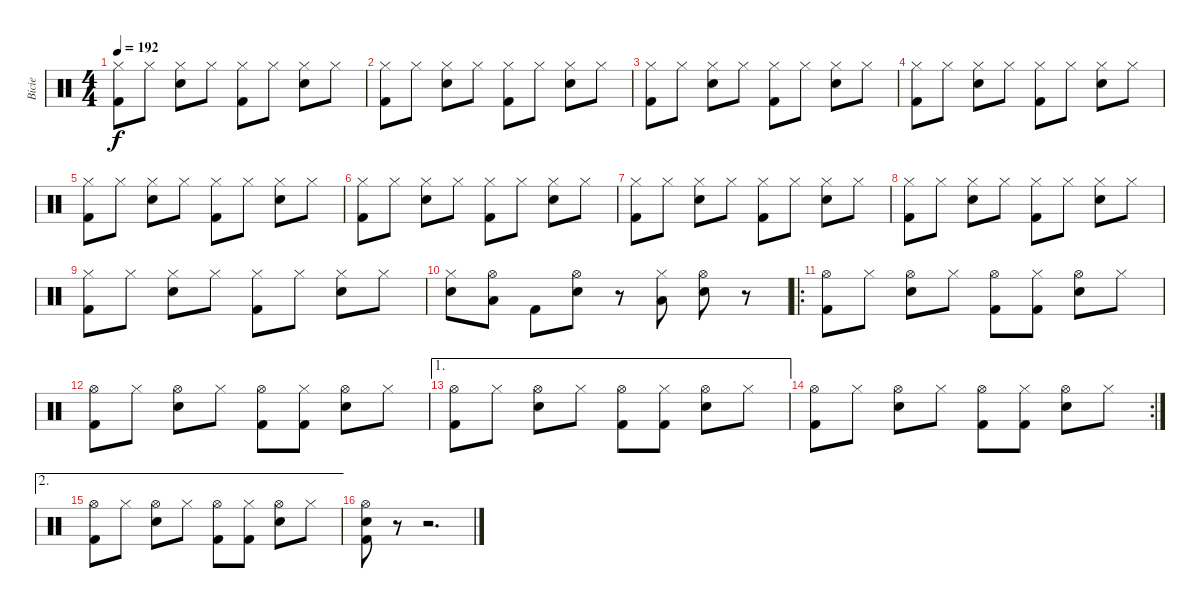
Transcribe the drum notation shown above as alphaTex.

\track ("Bicie" "Bicie") {instrument percussion}
\staff {score}
\articulation defaults
\ts (4 4)
\tempo 192
\clef neutral
\ks c
("Hi-Hat (closed)" "Kick (hit) 2").8{dy f} "Hi-Hat (closed)".8 ("Hi-Hat (closed)" "Electric Snare (hit)").8 "Hi-Hat (closed)".8 ("Hi-Hat (closed)" "Kick (hit) 2").8 "Hi-Hat (closed)".8 ("Hi-Hat (closed)" "Electric Snare (hit)").8 "Hi-Hat (closed)".8 |
("Hi-Hat (closed)" "Kick (hit) 2").8 "Hi-Hat (closed)".8 ("Hi-Hat (closed)" "Electric Snare (hit)").8 "Hi-Hat (closed)".8 ("Hi-Hat (closed)" "Kick (hit) 2").8 "Hi-Hat (closed)".8 ("Hi-Hat (closed)" "Electric Snare (hit)").8 "Hi-Hat (closed)".8 |
("Hi-Hat (closed)" "Kick (hit) 2").8 "Hi-Hat (closed)".8 ("Hi-Hat (closed)" "Electric Snare (hit)").8 "Hi-Hat (closed)".8 ("Hi-Hat (closed)" "Kick (hit) 2").8 "Hi-Hat (closed)".8 ("Hi-Hat (closed)" "Electric Snare (hit)").8 "Hi-Hat (closed)".8 |
("Hi-Hat (closed)" "Kick (hit) 2").8 "Hi-Hat (closed)".8 ("Hi-Hat (closed)" "Electric Snare (hit)").8 "Hi-Hat (closed)".8 ("Hi-Hat (closed)" "Kick (hit) 2").8 "Hi-Hat (closed)".8 ("Hi-Hat (closed)" "Electric Snare (hit)").8 "Hi-Hat (closed)".8 |
("Hi-Hat (closed)" "Kick (hit) 2").8 "Hi-Hat (closed)".8 ("Hi-Hat (closed)" "Electric Snare (hit)").8 "Hi-Hat (closed)".8 ("Hi-Hat (closed)" "Kick (hit) 2").8 "Hi-Hat (closed)".8 ("Hi-Hat (closed)" "Electric Snare (hit)").8 "Hi-Hat (closed)".8 |
("Hi-Hat (closed)" "Kick (hit) 2").8 "Hi-Hat (closed)".8 ("Hi-Hat (closed)" "Electric Snare (hit)").8 "Hi-Hat (closed)".8 ("Hi-Hat (closed)" "Kick (hit) 2").8 "Hi-Hat (closed)".8 ("Hi-Hat (closed)" "Electric Snare (hit)").8 "Hi-Hat (closed)".8 |
("Hi-Hat (closed)" "Kick (hit) 2").8 "Hi-Hat (closed)".8 ("Hi-Hat (closed)" "Electric Snare (hit)").8 "Hi-Hat (closed)".8 ("Hi-Hat (closed)" "Kick (hit) 2").8 "Hi-Hat (closed)".8 ("Hi-Hat (closed)" "Electric Snare (hit)").8 "Hi-Hat (closed)".8 |
("Hi-Hat (closed)" "Kick (hit) 2").8 "Hi-Hat (closed)".8 ("Hi-Hat (closed)" "Electric Snare (hit)").8 "Hi-Hat (closed)".8 ("Hi-Hat (closed)" "Kick (hit) 2").8 "Hi-Hat (closed)".8 ("Hi-Hat (closed)" "Electric Snare (hit)").8 "Hi-Hat (closed)".8 |
("Hi-Hat (closed)" "Kick (hit) 2").8 "Hi-Hat (closed)".8 ("Hi-Hat (closed)" "Electric Snare (hit)").8 "Hi-Hat (closed)".8 ("Hi-Hat (closed)" "Kick (hit) 2").8 "Hi-Hat (closed)".8 ("Hi-Hat (closed)" "Electric Snare (hit)").8 "Hi-Hat (closed)".8 |
("Hi-Hat (closed)" "Electric Snare (hit)").8 ("Hi-Hat (open)" "Low Tom (hit)").8 "Kick (hit) 2".8 ("Hi-Hat (open)" "Electric Snare (hit)").8 r.8 ("Hi-Hat (closed)" "Low Tom (hit)").8 ("Hi-Hat (open)" "Electric Snare (hit)").8 r.8 |
\ro
("Hi-Hat (open)" "Kick (hit) 2").8 "Hi-Hat (closed)".8 ("Hi-Hat (open)" "Electric Snare (hit)").8 "Hi-Hat (closed)".8 ("Hi-Hat (open)" "Kick (hit) 2").8 ("Hi-Hat (closed)" "Kick (hit) 2").8 ("Hi-Hat (open)" "Electric Snare (hit)").8 "Hi-Hat (closed)".8 |
("Hi-Hat (open)" "Kick (hit) 2").8 "Hi-Hat (closed)".8 ("Hi-Hat (open)" "Electric Snare (hit)").8 "Hi-Hat (closed)".8 ("Hi-Hat (open)" "Kick (hit) 2").8 ("Hi-Hat (closed)" "Kick (hit) 2").8 ("Hi-Hat (open)" "Electric Snare (hit)").8 "Hi-Hat (closed)".8 |
\ae 1
("Hi-Hat (open)" "Kick (hit) 2").8 "Hi-Hat (closed)".8 ("Hi-Hat (open)" "Electric Snare (hit)").8 "Hi-Hat (closed)".8 ("Hi-Hat (open)" "Kick (hit) 2").8 ("Hi-Hat (closed)" "Kick (hit) 2").8 ("Hi-Hat (open)" "Electric Snare (hit)").8 "Hi-Hat (closed)".8 |
\rc 2
("Hi-Hat (open)" "Kick (hit) 2").8 "Hi-Hat (closed)".8 ("Hi-Hat (open)" "Electric Snare (hit)").8 "Hi-Hat (closed)".8 ("Hi-Hat (open)" "Kick (hit) 2").8 ("Hi-Hat (closed)" "Kick (hit) 2").8 ("Hi-Hat (open)" "Electric Snare (hit)").8 "Hi-Hat (closed)".8 |
\ae 2
("Hi-Hat (open)" "Kick (hit) 2").8 "Hi-Hat (closed)".8 ("Hi-Hat (open)" "Electric Snare (hit)").8 "Hi-Hat (closed)".8 ("Hi-Hat (open)" "Kick (hit) 2").8 ("Hi-Hat (closed)" "Kick (hit) 2").8 ("Hi-Hat (open)" "Electric Snare (hit)").8 "Hi-Hat (closed)".8 |
("Hi-Hat (open)" "Electric Snare (hit)" "Kick (hit) 2").8 r.8 r.2{d}
